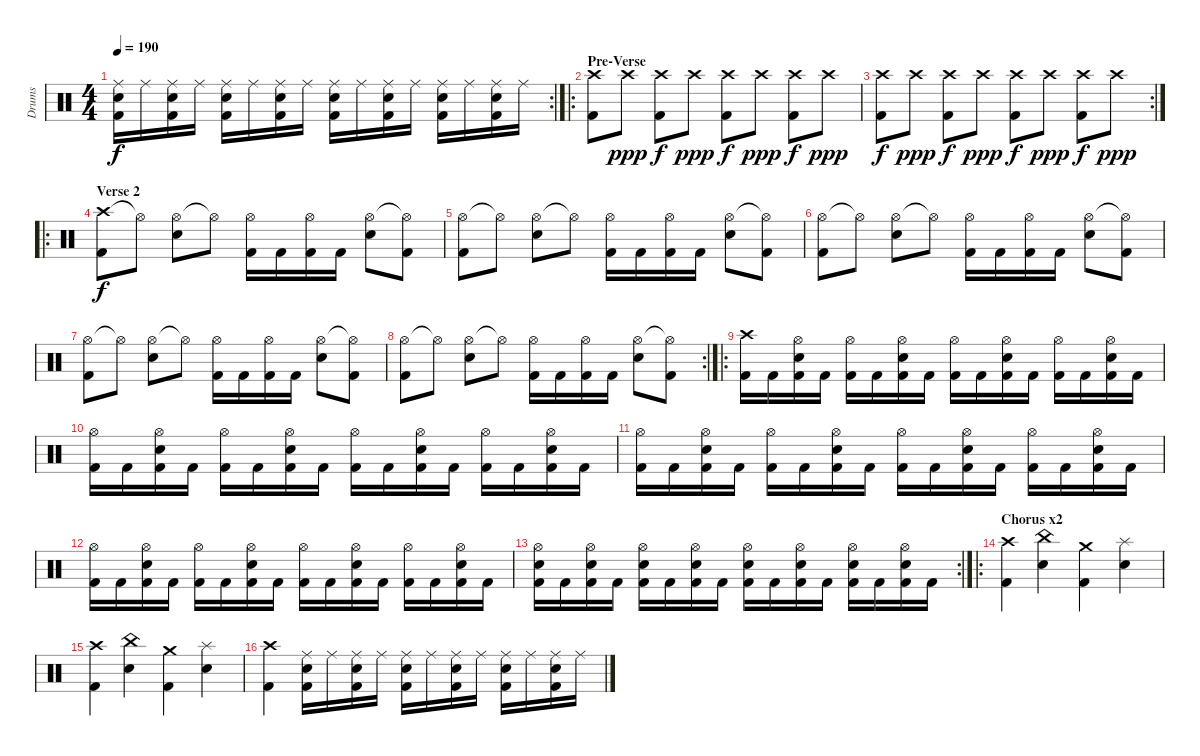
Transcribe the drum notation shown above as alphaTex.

\track ("Drums" "Drums") {instrument percussion}
\staff {score}
\articulation defaults
\rc 2
\ts (4 4)
\tempo 190
\clef neutral
\ks c
("Ride (middle)" "Kick (hit) 2" "Electric Snare (hit)").16{dy f} "Ride (middle)".16 ("Ride (middle)" "Kick (hit) 2" "Electric Snare (hit)").16 "Ride (middle)".16 ("Ride (middle)" "Kick (hit) 2" "Electric Snare (hit)").16 "Ride (middle)".16 ("Ride (middle)" "Kick (hit) 2" "Electric Snare (hit)").16 "Ride (middle)".16 ("Ride (middle)" "Kick (hit) 2" "Electric Snare (hit)").16 "Ride (middle)".16 ("Ride (middle)" "Kick (hit) 2" "Electric Snare (hit)").16 "Ride (middle)".16 ("Ride (middle)" "Kick (hit) 2" "Electric Snare (hit)").16 "Ride (middle)".16 ("Ride (middle)" "Kick (hit) 2" "Electric Snare (hit)").16 "Ride (middle)".16 |
\ro
\section ("" "Pre-Verse")
("Crash high (hit)" "Kick (hit) 2").8 "Crash high (hit)".8{dy ppp} ("Crash high (hit)" "Kick (hit) 2").8{dy f} "Crash high (hit)".8{dy ppp} ("Crash high (hit)" "Kick (hit) 2").8{dy f} "Crash high (hit)".8{dy ppp} ("Crash high (hit)" "Kick (hit) 2").8{dy f} "Crash high (hit)".8{dy ppp} |
\rc 2
("Crash high (hit)" "Kick (hit) 2").8{dy f} "Crash high (hit)".8{dy ppp} ("Crash high (hit)" "Kick (hit) 2").8{dy f} "Crash high (hit)".8{dy ppp} ("Crash high (hit)" "Kick (hit) 2").8{dy f} "Crash high (hit)".8{dy ppp} ("Crash high (hit)" "Kick (hit) 2").8{dy f} "Crash high (hit)".8{dy ppp} |
\ro
\section ("" "Verse 2")
("Crash high (hit)" "Kick (hit) 2").8{dy f} "Hi-Hat (open)"{t}.8 ("Hi-Hat (open)" "Electric Snare (hit)").8 "Hi-Hat (open)"{t}.8 ("Kick (hit) 2" "Hi-Hat (open)").16 "Kick (hit) 2".16 ("Kick (hit) 2" "Hi-Hat (open)").16 "Kick (hit) 2".16 ("Electric Snare (hit)" "Hi-Hat (open)").8 ("Kick (hit) 2" "Hi-Hat (open)"{t}).8 |
("Hi-Hat (open)" "Kick (hit) 2").8 "Hi-Hat (open)"{t}.8 ("Hi-Hat (open)" "Electric Snare (hit)").8 "Hi-Hat (open)"{t}.8 ("Kick (hit) 2" "Hi-Hat (open)").16 "Kick (hit) 2".16 ("Kick (hit) 2" "Hi-Hat (open)").16 "Kick (hit) 2".16 ("Electric Snare (hit)" "Hi-Hat (open)").8 ("Kick (hit) 2" "Hi-Hat (open)"{t}).8 |
("Hi-Hat (open)" "Kick (hit) 2").8 "Hi-Hat (open)"{t}.8 ("Hi-Hat (open)" "Electric Snare (hit)").8 "Hi-Hat (open)"{t}.8 ("Kick (hit) 2" "Hi-Hat (open)").16 "Kick (hit) 2".16 ("Kick (hit) 2" "Hi-Hat (open)").16 "Kick (hit) 2".16 ("Electric Snare (hit)" "Hi-Hat (open)").8 ("Kick (hit) 2" "Hi-Hat (open)"{t}).8 |
("Hi-Hat (open)" "Kick (hit) 2").8 "Hi-Hat (open)"{t}.8 ("Hi-Hat (open)" "Electric Snare (hit)").8 "Hi-Hat (open)"{t}.8 ("Kick (hit) 2" "Hi-Hat (open)").16 "Kick (hit) 2".16 ("Kick (hit) 2" "Hi-Hat (open)").16 "Kick (hit) 2".16 ("Electric Snare (hit)" "Hi-Hat (open)").8 ("Kick (hit) 2" "Hi-Hat (open)"{t}).8 |
\rc 2
("Hi-Hat (open)" "Kick (hit) 2").8 "Hi-Hat (open)"{t}.8 ("Hi-Hat (open)" "Electric Snare (hit)").8 "Hi-Hat (open)"{t}.8 ("Kick (hit) 2" "Hi-Hat (open)").16 "Kick (hit) 2".16 ("Kick (hit) 2" "Hi-Hat (open)").16 "Kick (hit) 2".16 ("Electric Snare (hit)" "Hi-Hat (open)").8 ("Kick (hit) 2" "Hi-Hat (open)"{t}).8 |
\ro
("Kick (hit) 2" "Crash high (hit)").16 "Kick (hit) 2".16 ("Kick (hit) 2" "Hi-Hat (open)" "Electric Snare (hit)").16 "Kick (hit) 2".16 ("Kick (hit) 2" "Hi-Hat (open)").16 "Kick (hit) 2".16 ("Kick (hit) 2" "Hi-Hat (open)" "Electric Snare (hit)").16 "Kick (hit) 2".16 ("Kick (hit) 2" "Hi-Hat (open)").16 "Kick (hit) 2".16 ("Kick (hit) 2" "Hi-Hat (open)" "Electric Snare (hit)").16 "Kick (hit) 2".16 ("Kick (hit) 2" "Hi-Hat (open)").16 "Kick (hit) 2".16 ("Kick (hit) 2" "Hi-Hat (open)" "Electric Snare (hit)").16 "Kick (hit) 2".16 |
("Kick (hit) 2" "Hi-Hat (open)").16 "Kick (hit) 2".16 ("Kick (hit) 2" "Hi-Hat (open)" "Electric Snare (hit)").16 "Kick (hit) 2".16 ("Kick (hit) 2" "Hi-Hat (open)").16 "Kick (hit) 2".16 ("Kick (hit) 2" "Hi-Hat (open)" "Electric Snare (hit)").16 "Kick (hit) 2".16 ("Kick (hit) 2" "Hi-Hat (open)").16 "Kick (hit) 2".16 ("Kick (hit) 2" "Hi-Hat (open)" "Electric Snare (hit)").16 "Kick (hit) 2".16 ("Kick (hit) 2" "Hi-Hat (open)").16 "Kick (hit) 2".16 ("Kick (hit) 2" "Hi-Hat (open)" "Electric Snare (hit)").16 "Kick (hit) 2".16 |
("Kick (hit) 2" "Hi-Hat (open)").16 "Kick (hit) 2".16 ("Kick (hit) 2" "Hi-Hat (open)" "Electric Snare (hit)").16 "Kick (hit) 2".16 ("Kick (hit) 2" "Hi-Hat (open)").16 "Kick (hit) 2".16 ("Kick (hit) 2" "Hi-Hat (open)" "Electric Snare (hit)").16 "Kick (hit) 2".16 ("Kick (hit) 2" "Hi-Hat (open)").16 "Kick (hit) 2".16 ("Kick (hit) 2" "Hi-Hat (open)" "Electric Snare (hit)").16 "Kick (hit) 2".16 ("Kick (hit) 2" "Hi-Hat (open)").16 "Kick (hit) 2".16 ("Kick (hit) 2" "Hi-Hat (open)" "Electric Snare (hit)").16 "Kick (hit) 2".16 |
("Kick (hit) 2" "Hi-Hat (open)").16 "Kick (hit) 2".16 ("Kick (hit) 2" "Hi-Hat (open)" "Electric Snare (hit)").16 "Kick (hit) 2".16 ("Kick (hit) 2" "Hi-Hat (open)").16 "Kick (hit) 2".16 ("Kick (hit) 2" "Hi-Hat (open)" "Electric Snare (hit)").16 "Kick (hit) 2".16 ("Kick (hit) 2" "Hi-Hat (open)").16 "Kick (hit) 2".16 ("Kick (hit) 2" "Hi-Hat (open)" "Electric Snare (hit)").16 "Kick (hit) 2".16 ("Kick (hit) 2" "Hi-Hat (open)").16 "Kick (hit) 2".16 ("Kick (hit) 2" "Hi-Hat (open)" "Electric Snare (hit)").16 "Kick (hit) 2".16 |
\rc 2
("Kick (hit) 2" "Hi-Hat (open)" "Electric Snare (hit)").16 "Kick (hit) 2".16 ("Kick (hit) 2" "Hi-Hat (open)" "Electric Snare (hit)").16 "Kick (hit) 2".16 ("Kick (hit) 2" "Hi-Hat (open)" "Electric Snare (hit)").16 "Kick (hit) 2".16 ("Kick (hit) 2" "Hi-Hat (open)" "Electric Snare (hit)").16 "Kick (hit) 2".16 ("Kick (hit) 2" "Hi-Hat (open)" "Electric Snare (hit)").16 "Kick (hit) 2".16 ("Kick (hit) 2" "Hi-Hat (open)" "Electric Snare (hit)").16 "Kick (hit) 2".16 ("Kick (hit) 2" "Hi-Hat (open)" "Electric Snare (hit)").16 "Kick (hit) 2".16 ("Kick (hit) 2" "Hi-Hat (open)" "Electric Snare (hit)").16 "Kick (hit) 2".16 |
\ro
\section ("" "Chorus x2")
("Crash high (hit)" "Kick (hit) 2").4 ("China (hit)" "Electric Snare (hit)").4 ("Crash medium (hit)" "Kick (hit) 2").4 ("Splash (hit)" "Electric Snare (hit)").4 |
("Crash high (hit)" "Kick (hit) 2").4 ("China (hit)" "Electric Snare (hit)").4 ("Crash medium (hit)" "Kick (hit) 2").4 ("Splash (hit)" "Electric Snare (hit)").4 |
("Crash high (hit)" "Kick (hit) 2").4 ("Ride (middle)" "Kick (hit) 2" "Electric Snare (hit)").16 "Ride (middle)".16 ("Ride (middle)" "Kick (hit) 2" "Electric Snare (hit)").16 "Ride (middle)".16 ("Ride (middle)" "Kick (hit) 2" "Electric Snare (hit)").16 "Ride (middle)".16 ("Ride (middle)" "Kick (hit) 2" "Electric Snare (hit)").16 "Ride (middle)".16 ("Ride (middle)" "Kick (hit) 2" "Electric Snare (hit)").16 "Ride (middle)".16 ("Ride (middle)" "Kick (hit) 2" "Electric Snare (hit)").16 "Ride (middle)".16
